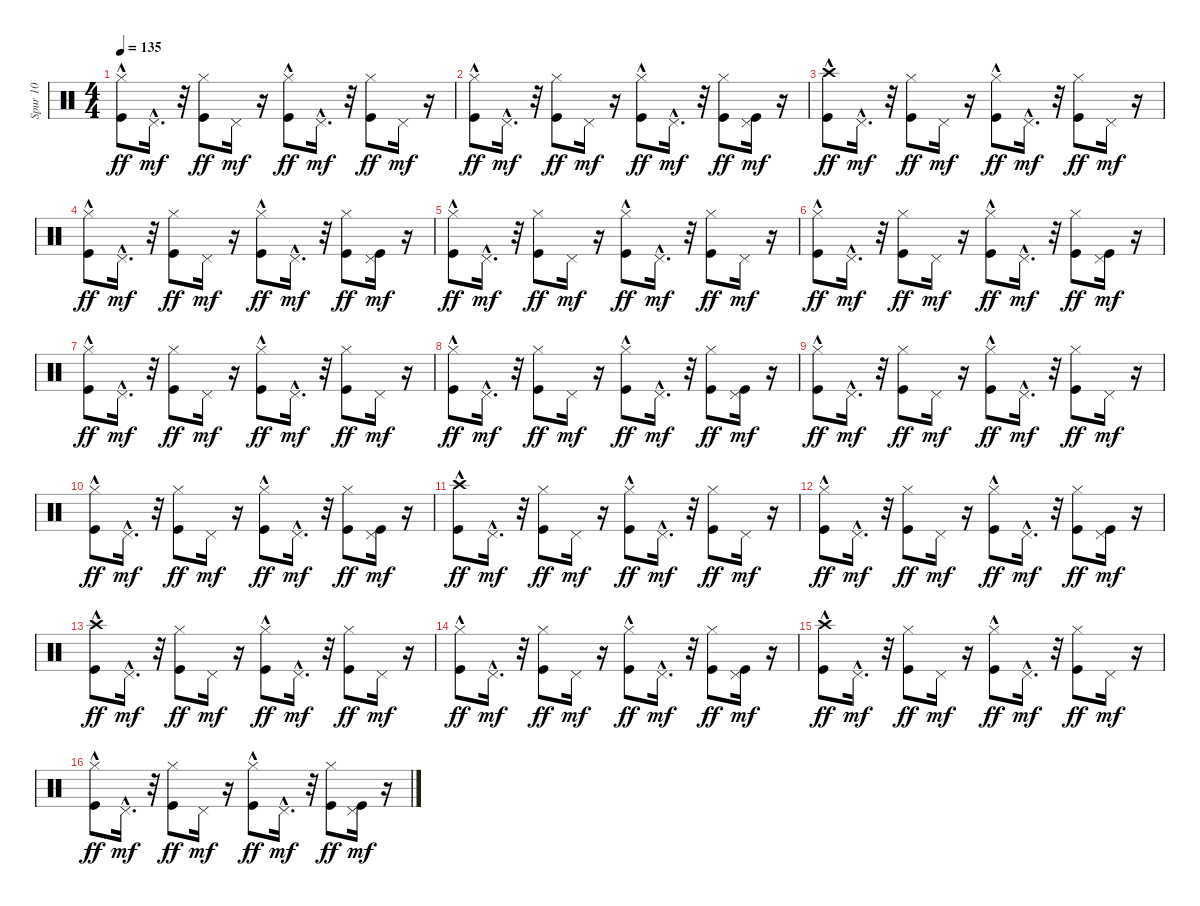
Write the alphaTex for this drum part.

\track ("Spur 10" "Spur 10") {instrument percussion}
\staff {score}
\articulation defaults
\ts (4 4)
\tempo 135
\clef neutral
\ks c
("Hi-Hat (closed)"{hac} "Kick (hit)").8{dy ff} "Pedal Hi-Hat (hit)"{hac}.16{d dy mf} r.32 ("Hi-Hat (closed)" "Kick (hit)").8{dy ff} "Pedal Hi-Hat (hit)".16{dy mf} r.16 ("Hi-Hat (closed)"{hac} "Kick (hit)").8{dy ff} "Pedal Hi-Hat (hit)"{hac}.16{d dy mf} r.32 ("Hi-Hat (closed)" "Kick (hit)").8{dy ff} "Pedal Hi-Hat (hit)".16{dy mf} r.16 |
("Hi-Hat (closed)"{hac} "Kick (hit)").8{dy ff} "Pedal Hi-Hat (hit)"{hac}.16{d dy mf} r.32 ("Hi-Hat (closed)" "Kick (hit)").8{dy ff} "Pedal Hi-Hat (hit)".16{dy mf} r.16 ("Hi-Hat (closed)"{hac} "Kick (hit)").8{dy ff} "Pedal Hi-Hat (hit)"{hac}.16{d dy mf} r.32 ("Hi-Hat (closed)" "Kick (hit)").8{dy ff} ("Kick (hit)" "Pedal Hi-Hat (hit)").16{dy mf} r.16 |
("Crash high (hit)"{hac} "Kick (hit)").8{dy ff} "Pedal Hi-Hat (hit)"{hac}.16{d dy mf} r.32 ("Hi-Hat (closed)" "Kick (hit)").8{dy ff} "Pedal Hi-Hat (hit)".16{dy mf} r.16 ("Hi-Hat (closed)"{hac} "Kick (hit)").8{dy ff} "Pedal Hi-Hat (hit)"{hac}.16{d dy mf} r.32 ("Hi-Hat (closed)" "Kick (hit)").8{dy ff} "Pedal Hi-Hat (hit)".16{dy mf} r.16 |
("Hi-Hat (closed)"{hac} "Kick (hit)").8{dy ff} "Pedal Hi-Hat (hit)"{hac}.16{d dy mf} r.32 ("Hi-Hat (closed)" "Kick (hit)").8{dy ff} "Pedal Hi-Hat (hit)".16{dy mf} r.16 ("Hi-Hat (closed)"{hac} "Kick (hit)").8{dy ff} "Pedal Hi-Hat (hit)"{hac}.16{d dy mf} r.32 ("Hi-Hat (closed)" "Kick (hit)").8{dy ff} ("Kick (hit)" "Pedal Hi-Hat (hit)").16{dy mf} r.16 |
("Hi-Hat (closed)"{hac} "Kick (hit)").8{dy ff} "Pedal Hi-Hat (hit)"{hac}.16{d dy mf} r.32 ("Hi-Hat (closed)" "Kick (hit)").8{dy ff} "Pedal Hi-Hat (hit)".16{dy mf} r.16 ("Hi-Hat (closed)"{hac} "Kick (hit)").8{dy ff} "Pedal Hi-Hat (hit)"{hac}.16{d dy mf} r.32 ("Hi-Hat (closed)" "Kick (hit)").8{dy ff} "Pedal Hi-Hat (hit)".16{dy mf} r.16 |
("Hi-Hat (closed)"{hac} "Kick (hit)").8{dy ff} "Pedal Hi-Hat (hit)"{hac}.16{d dy mf} r.32 ("Hi-Hat (closed)" "Kick (hit)").8{dy ff} "Pedal Hi-Hat (hit)".16{dy mf} r.16 ("Hi-Hat (closed)"{hac} "Kick (hit)").8{dy ff} "Pedal Hi-Hat (hit)"{hac}.16{d dy mf} r.32 ("Hi-Hat (closed)" "Kick (hit)").8{dy ff} ("Kick (hit)" "Pedal Hi-Hat (hit)").16{dy mf} r.16 |
("Hi-Hat (closed)"{hac} "Kick (hit)").8{dy ff} "Pedal Hi-Hat (hit)"{hac}.16{d dy mf} r.32 ("Hi-Hat (closed)" "Kick (hit)").8{dy ff} "Pedal Hi-Hat (hit)".16{dy mf} r.16 ("Hi-Hat (closed)"{hac} "Kick (hit)").8{dy ff} "Pedal Hi-Hat (hit)"{hac}.16{d dy mf} r.32 ("Hi-Hat (closed)" "Kick (hit)").8{dy ff} "Pedal Hi-Hat (hit)".16{dy mf} r.16 |
("Hi-Hat (closed)"{hac} "Kick (hit)").8{dy ff} "Pedal Hi-Hat (hit)"{hac}.16{d dy mf} r.32 ("Hi-Hat (closed)" "Kick (hit)").8{dy ff} "Pedal Hi-Hat (hit)".16{dy mf} r.16 ("Hi-Hat (closed)"{hac} "Kick (hit)").8{dy ff} "Pedal Hi-Hat (hit)"{hac}.16{d dy mf} r.32 ("Hi-Hat (closed)" "Kick (hit)").8{dy ff} ("Kick (hit)" "Pedal Hi-Hat (hit)").16{dy mf} r.16 |
("Hi-Hat (closed)"{hac} "Kick (hit)").8{dy ff} "Pedal Hi-Hat (hit)"{hac}.16{d dy mf} r.32 ("Hi-Hat (closed)" "Kick (hit)").8{dy ff} "Pedal Hi-Hat (hit)".16{dy mf} r.16 ("Hi-Hat (closed)"{hac} "Kick (hit)").8{dy ff} "Pedal Hi-Hat (hit)"{hac}.16{d dy mf} r.32 ("Hi-Hat (closed)" "Kick (hit)").8{dy ff} "Pedal Hi-Hat (hit)".16{dy mf} r.16 |
("Hi-Hat (closed)"{hac} "Kick (hit)").8{dy ff} "Pedal Hi-Hat (hit)"{hac}.16{d dy mf} r.32 ("Hi-Hat (closed)" "Kick (hit)").8{dy ff} "Pedal Hi-Hat (hit)".16{dy mf} r.16 ("Hi-Hat (closed)"{hac} "Kick (hit)").8{dy ff} "Pedal Hi-Hat (hit)"{hac}.16{d dy mf} r.32 ("Hi-Hat (closed)" "Kick (hit)").8{dy ff} ("Kick (hit)" "Pedal Hi-Hat (hit)").16{dy mf} r.16 |
("Crash high (hit)"{hac} "Kick (hit)").8{dy ff} "Pedal Hi-Hat (hit)"{hac}.16{d dy mf} r.32 ("Hi-Hat (closed)" "Kick (hit)").8{dy ff} "Pedal Hi-Hat (hit)".16{dy mf} r.16 ("Hi-Hat (closed)"{hac} "Kick (hit)").8{dy ff} "Pedal Hi-Hat (hit)"{hac}.16{d dy mf} r.32 ("Hi-Hat (closed)" "Kick (hit)").8{dy ff} "Pedal Hi-Hat (hit)".16{dy mf} r.16 |
("Hi-Hat (closed)"{hac} "Kick (hit)").8{dy ff} "Pedal Hi-Hat (hit)"{hac}.16{d dy mf} r.32 ("Hi-Hat (closed)" "Kick (hit)").8{dy ff} "Pedal Hi-Hat (hit)".16{dy mf} r.16 ("Hi-Hat (closed)"{hac} "Kick (hit)").8{dy ff} "Pedal Hi-Hat (hit)"{hac}.16{d dy mf} r.32 ("Hi-Hat (closed)" "Kick (hit)").8{dy ff} ("Kick (hit)" "Pedal Hi-Hat (hit)").16{dy mf} r.16 |
("Crash high (hit)"{hac} "Kick (hit)").8{dy ff} "Pedal Hi-Hat (hit)"{hac}.16{d dy mf} r.32 ("Hi-Hat (closed)" "Kick (hit)").8{dy ff} "Pedal Hi-Hat (hit)".16{dy mf} r.16 ("Hi-Hat (closed)"{hac} "Kick (hit)").8{dy ff} "Pedal Hi-Hat (hit)"{hac}.16{d dy mf} r.32 ("Hi-Hat (closed)" "Kick (hit)").8{dy ff} "Pedal Hi-Hat (hit)".16{dy mf} r.16 |
("Hi-Hat (closed)"{hac} "Kick (hit)").8{dy ff} "Pedal Hi-Hat (hit)"{hac}.16{d dy mf} r.32 ("Hi-Hat (closed)" "Kick (hit)").8{dy ff} "Pedal Hi-Hat (hit)".16{dy mf} r.16 ("Hi-Hat (closed)"{hac} "Kick (hit)").8{dy ff} "Pedal Hi-Hat (hit)"{hac}.16{d dy mf} r.32 ("Hi-Hat (closed)" "Kick (hit)").8{dy ff} ("Kick (hit)" "Pedal Hi-Hat (hit)").16{dy mf} r.16 |
("Crash high (hit)"{hac} "Kick (hit)").8{dy ff} "Pedal Hi-Hat (hit)"{hac}.16{d dy mf} r.32 ("Hi-Hat (closed)" "Kick (hit)").8{dy ff} "Pedal Hi-Hat (hit)".16{dy mf} r.16 ("Hi-Hat (closed)"{hac} "Kick (hit)").8{dy ff} "Pedal Hi-Hat (hit)"{hac}.16{d dy mf} r.32 ("Hi-Hat (closed)" "Kick (hit)").8{dy ff} "Pedal Hi-Hat (hit)".16{dy mf} r.16 |
("Hi-Hat (closed)"{hac} "Kick (hit)").8{dy ff} "Pedal Hi-Hat (hit)"{hac}.16{d dy mf} r.32 ("Hi-Hat (closed)" "Kick (hit)").8{dy ff} "Pedal Hi-Hat (hit)".16{dy mf} r.16 ("Hi-Hat (closed)"{hac} "Kick (hit)").8{dy ff} "Pedal Hi-Hat (hit)"{hac}.16{d dy mf} r.32 ("Hi-Hat (closed)" "Kick (hit)").8{dy ff} ("Kick (hit)" "Pedal Hi-Hat (hit)").16{dy mf} r.16
